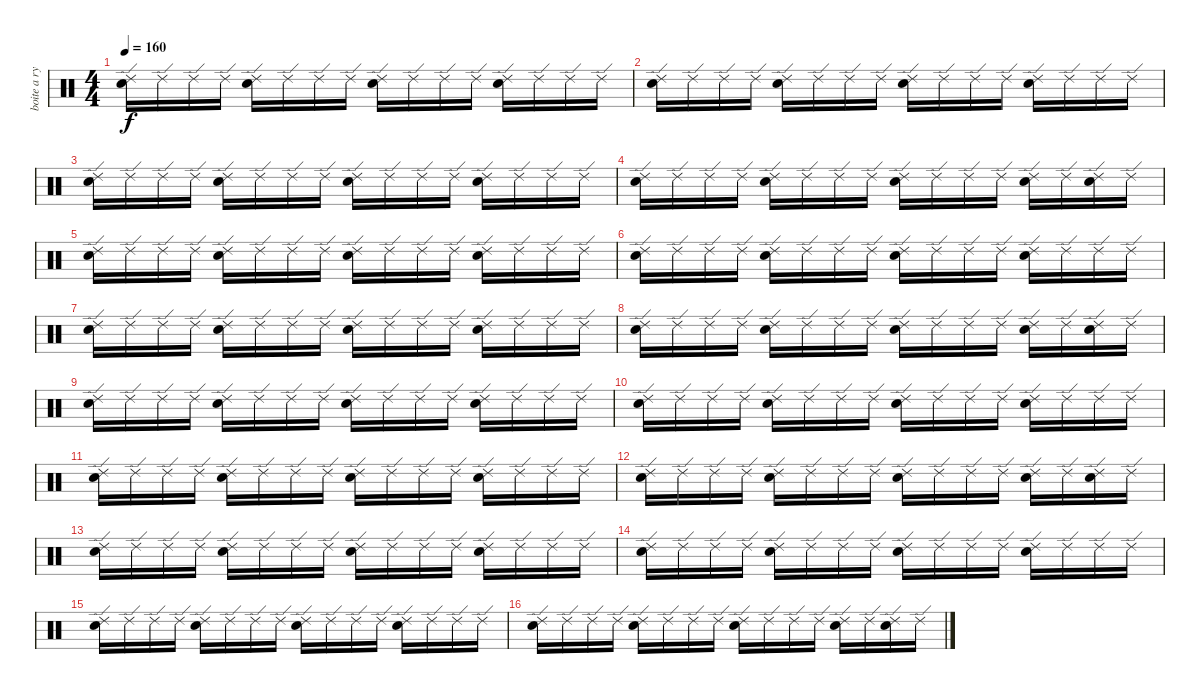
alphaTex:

\track ("boite a rythme" "boite a ry") {instrument percussion}
\staff {score}
\articulation defaults
\ts (4 4)
\tempo 160
\clef neutral
\ks c
("Ride (edge) 2" "Electric Snare (hit)").16{dy f} "Ride (edge) 2".16 "Ride (edge) 2".16 "Ride (edge) 2".16 ("Ride (edge) 2" "Electric Snare (hit)").16 "Ride (edge) 2".16 "Ride (edge) 2".16 "Ride (edge) 2".16 ("Ride (edge) 2" "Electric Snare (hit)").16 "Ride (edge) 2".16 "Ride (edge) 2".16 "Ride (edge) 2".16 ("Ride (edge) 2" "Electric Snare (hit)").16 "Ride (edge) 2".16 "Ride (edge) 2".16 "Ride (edge) 2".16 |
("Ride (edge) 2" "Electric Snare (hit)").16 "Ride (edge) 2".16 "Ride (edge) 2".16 "Ride (edge) 2".16 ("Ride (edge) 2" "Electric Snare (hit)").16 "Ride (edge) 2".16 "Ride (edge) 2".16 "Ride (edge) 2".16 ("Ride (edge) 2" "Electric Snare (hit)").16 "Ride (edge) 2".16 "Ride (edge) 2".16 "Ride (edge) 2".16 ("Ride (edge) 2" "Electric Snare (hit)").16 "Ride (edge) 2".16 "Ride (edge) 2".16 "Ride (edge) 2".16 |
("Ride (edge) 2" "Electric Snare (hit)").16 "Ride (edge) 2".16 "Ride (edge) 2".16 "Ride (edge) 2".16 ("Ride (edge) 2" "Electric Snare (hit)").16 "Ride (edge) 2".16 "Ride (edge) 2".16 "Ride (edge) 2".16 ("Ride (edge) 2" "Electric Snare (hit)").16 "Ride (edge) 2".16 "Ride (edge) 2".16 "Ride (edge) 2".16 ("Ride (edge) 2" "Electric Snare (hit)").16 "Ride (edge) 2".16 "Ride (edge) 2".16 "Ride (edge) 2".16 |
("Ride (edge) 2" "Electric Snare (hit)").16 "Ride (edge) 2".16 "Ride (edge) 2".16 "Ride (edge) 2".16 ("Ride (edge) 2" "Electric Snare (hit)").16 "Ride (edge) 2".16 "Ride (edge) 2".16 "Ride (edge) 2".16 ("Ride (edge) 2" "Electric Snare (hit)").16 "Ride (edge) 2".16 "Ride (edge) 2".16 "Ride (edge) 2".16 ("Ride (edge) 2" "Electric Snare (hit)").16 "Ride (edge) 2".16 ("Ride (edge) 2" "Electric Snare (hit)").16 "Ride (edge) 2".16 |
("Ride (edge) 2" "Electric Snare (hit)").16 "Ride (edge) 2".16 "Ride (edge) 2".16 "Ride (edge) 2".16 ("Ride (edge) 2" "Electric Snare (hit)").16 "Ride (edge) 2".16 "Ride (edge) 2".16 "Ride (edge) 2".16 ("Ride (edge) 2" "Electric Snare (hit)").16 "Ride (edge) 2".16 "Ride (edge) 2".16 "Ride (edge) 2".16 ("Ride (edge) 2" "Electric Snare (hit)").16 "Ride (edge) 2".16 "Ride (edge) 2".16 "Ride (edge) 2".16 |
("Ride (edge) 2" "Electric Snare (hit)").16 "Ride (edge) 2".16 "Ride (edge) 2".16 "Ride (edge) 2".16 ("Ride (edge) 2" "Electric Snare (hit)").16 "Ride (edge) 2".16 "Ride (edge) 2".16 "Ride (edge) 2".16 ("Ride (edge) 2" "Electric Snare (hit)").16 "Ride (edge) 2".16 "Ride (edge) 2".16 "Ride (edge) 2".16 ("Ride (edge) 2" "Electric Snare (hit)").16 "Ride (edge) 2".16 "Ride (edge) 2".16 "Ride (edge) 2".16 |
("Ride (edge) 2" "Electric Snare (hit)").16 "Ride (edge) 2".16 "Ride (edge) 2".16 "Ride (edge) 2".16 ("Ride (edge) 2" "Electric Snare (hit)").16 "Ride (edge) 2".16 "Ride (edge) 2".16 "Ride (edge) 2".16 ("Ride (edge) 2" "Electric Snare (hit)").16 "Ride (edge) 2".16 "Ride (edge) 2".16 "Ride (edge) 2".16 ("Ride (edge) 2" "Electric Snare (hit)").16 "Ride (edge) 2".16 "Ride (edge) 2".16 "Ride (edge) 2".16 |
("Ride (edge) 2" "Electric Snare (hit)").16 "Ride (edge) 2".16 "Ride (edge) 2".16 "Ride (edge) 2".16 ("Ride (edge) 2" "Electric Snare (hit)").16 "Ride (edge) 2".16 "Ride (edge) 2".16 "Ride (edge) 2".16 ("Ride (edge) 2" "Electric Snare (hit)").16 "Ride (edge) 2".16 "Ride (edge) 2".16 "Ride (edge) 2".16 ("Ride (edge) 2" "Electric Snare (hit)").16 "Ride (edge) 2".16 ("Ride (edge) 2" "Electric Snare (hit)").16 "Ride (edge) 2".16 |
("Ride (edge) 2" "Electric Snare (hit)").16 "Ride (edge) 2".16 "Ride (edge) 2".16 "Ride (edge) 2".16 ("Ride (edge) 2" "Electric Snare (hit)").16 "Ride (edge) 2".16 "Ride (edge) 2".16 "Ride (edge) 2".16 ("Ride (edge) 2" "Electric Snare (hit)").16 "Ride (edge) 2".16 "Ride (edge) 2".16 "Ride (edge) 2".16 ("Ride (edge) 2" "Electric Snare (hit)").16 "Ride (edge) 2".16 "Ride (edge) 2".16 "Ride (edge) 2".16 |
("Ride (edge) 2" "Electric Snare (hit)").16 "Ride (edge) 2".16 "Ride (edge) 2".16 "Ride (edge) 2".16 ("Ride (edge) 2" "Electric Snare (hit)").16 "Ride (edge) 2".16 "Ride (edge) 2".16 "Ride (edge) 2".16 ("Ride (edge) 2" "Electric Snare (hit)").16 "Ride (edge) 2".16 "Ride (edge) 2".16 "Ride (edge) 2".16 ("Ride (edge) 2" "Electric Snare (hit)").16 "Ride (edge) 2".16 "Ride (edge) 2".16 "Ride (edge) 2".16 |
("Ride (edge) 2" "Electric Snare (hit)").16 "Ride (edge) 2".16 "Ride (edge) 2".16 "Ride (edge) 2".16 ("Ride (edge) 2" "Electric Snare (hit)").16 "Ride (edge) 2".16 "Ride (edge) 2".16 "Ride (edge) 2".16 ("Ride (edge) 2" "Electric Snare (hit)").16 "Ride (edge) 2".16 "Ride (edge) 2".16 "Ride (edge) 2".16 ("Ride (edge) 2" "Electric Snare (hit)").16 "Ride (edge) 2".16 "Ride (edge) 2".16 "Ride (edge) 2".16 |
("Ride (edge) 2" "Electric Snare (hit)").16 "Ride (edge) 2".16 "Ride (edge) 2".16 "Ride (edge) 2".16 ("Ride (edge) 2" "Electric Snare (hit)").16 "Ride (edge) 2".16 "Ride (edge) 2".16 "Ride (edge) 2".16 ("Ride (edge) 2" "Electric Snare (hit)").16 "Ride (edge) 2".16 "Ride (edge) 2".16 "Ride (edge) 2".16 ("Ride (edge) 2" "Electric Snare (hit)").16 "Ride (edge) 2".16 ("Ride (edge) 2" "Electric Snare (hit)").16 "Ride (edge) 2".16 |
("Ride (edge) 2" "Electric Snare (hit)").16 "Ride (edge) 2".16 "Ride (edge) 2".16 "Ride (edge) 2".16 ("Ride (edge) 2" "Electric Snare (hit)").16 "Ride (edge) 2".16 "Ride (edge) 2".16 "Ride (edge) 2".16 ("Ride (edge) 2" "Electric Snare (hit)").16 "Ride (edge) 2".16 "Ride (edge) 2".16 "Ride (edge) 2".16 ("Ride (edge) 2" "Electric Snare (hit)").16 "Ride (edge) 2".16 "Ride (edge) 2".16 "Ride (edge) 2".16 |
("Ride (edge) 2" "Electric Snare (hit)").16 "Ride (edge) 2".16 "Ride (edge) 2".16 "Ride (edge) 2".16 ("Ride (edge) 2" "Electric Snare (hit)").16 "Ride (edge) 2".16 "Ride (edge) 2".16 "Ride (edge) 2".16 ("Ride (edge) 2" "Electric Snare (hit)").16 "Ride (edge) 2".16 "Ride (edge) 2".16 "Ride (edge) 2".16 ("Ride (edge) 2" "Electric Snare (hit)").16 "Ride (edge) 2".16 "Ride (edge) 2".16 "Ride (edge) 2".16 |
("Ride (edge) 2" "Electric Snare (hit)").16 "Ride (edge) 2".16 "Ride (edge) 2".16 "Ride (edge) 2".16 ("Ride (edge) 2" "Electric Snare (hit)").16 "Ride (edge) 2".16 "Ride (edge) 2".16 "Ride (edge) 2".16 ("Ride (edge) 2" "Electric Snare (hit)").16 "Ride (edge) 2".16 "Ride (edge) 2".16 "Ride (edge) 2".16 ("Ride (edge) 2" "Electric Snare (hit)").16 "Ride (edge) 2".16 "Ride (edge) 2".16 "Ride (edge) 2".16 |
("Ride (edge) 2" "Electric Snare (hit)").16 "Ride (edge) 2".16 "Ride (edge) 2".16 "Ride (edge) 2".16 ("Ride (edge) 2" "Electric Snare (hit)").16 "Ride (edge) 2".16 "Ride (edge) 2".16 "Ride (edge) 2".16 ("Ride (edge) 2" "Electric Snare (hit)").16 "Ride (edge) 2".16 "Ride (edge) 2".16 "Ride (edge) 2".16 ("Ride (edge) 2" "Electric Snare (hit)").16 "Ride (edge) 2".16 ("Ride (edge) 2" "Electric Snare (hit)").16 "Ride (edge) 2".16
